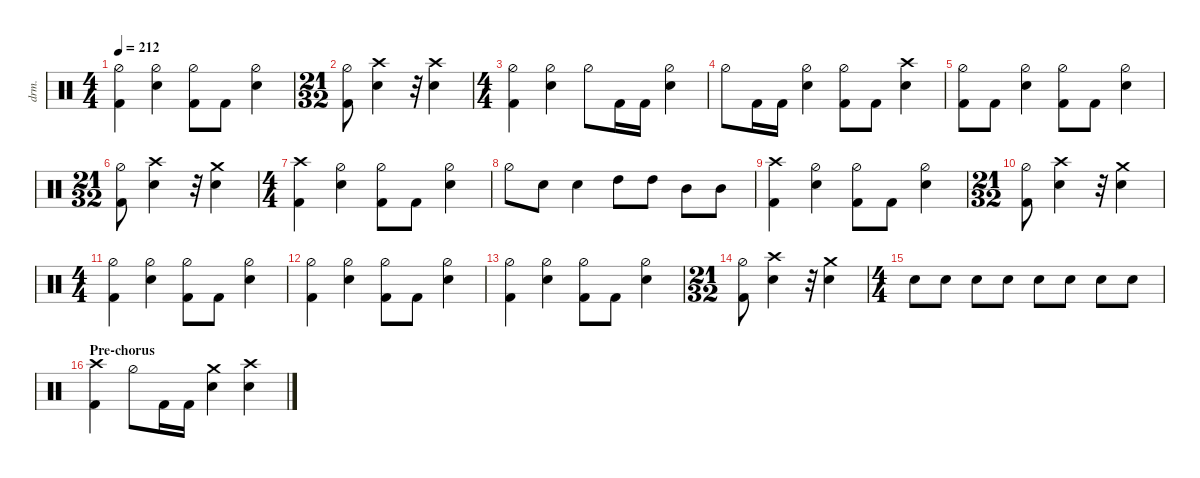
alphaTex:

\defaultSystemsLayout 4
\hideDynamics
\bracketExtendMode nobrackets
\track ("Drums" "drm.") {defaultSystemsLayout 4 multiBarRest instrument percussion}
\staff
\articulation defaults
\ts (4 4)
\tempo 212
\clef neutral
\ks c
("Kick (hit) 2" "Hi-Hat (half)").4{dy f} ("Hi-Hat (half)" "Snare (hit) 2").4 ("Hi-Hat (half)" "Kick (hit) 2").8 "Kick (hit) 2".8 ("Hi-Hat (half)" "Snare (hit) 2").4 |
\ts (21 32)
\beaming (8 3 2)
("Kick (hit) 2" "Hi-Hat (half)").8 ("Snare (hit) 2" "Crash high (hit)").4 r.32 ("Snare (hit) 2" "Crash high (hit)").4 |
\ts (4 4)
\beaming (8 2 2 2 2)
("Kick (hit) 2" "Hi-Hat (half)").4 ("Hi-Hat (half)" "Snare (hit) 2").4 "Hi-Hat (half)".8 "Kick (hit) 2".16 "Kick (hit) 2".16 ("Hi-Hat (half)" "Snare (hit) 2").4 |
"Hi-Hat (half)".8 "Kick (hit) 2".16 "Kick (hit) 2".16 ("Hi-Hat (half)" "Snare (hit) 2").4 ("Hi-Hat (half)" "Kick (hit) 2").8 "Kick (hit) 2".8 ("Snare (hit) 2" "Crash high (hit)").4 |
("Hi-Hat (half)" "Kick (hit) 2").8 "Kick (hit) 2".8 ("Hi-Hat (half)" "Snare (hit) 2").4 ("Hi-Hat (half)" "Kick (hit) 2").8 "Kick (hit) 2".8 ("Hi-Hat (half)" "Snare (hit) 2").4 |
\ts (21 32)
\beaming (8 3 2)
("Kick (hit) 2" "Hi-Hat (half)").8 ("Snare (hit) 2" "Crash high (hit)").4 r.32 ("Snare (hit) 2" "Crash medium (hit)").4 |
\ts (4 4)
\beaming (8 2 2 2 2)
("Crash high (hit)" "Kick (hit) 2").4 ("Hi-Hat (half)" "Snare (hit) 2").4 ("Hi-Hat (half)" "Kick (hit) 2").8 "Kick (hit) 2".8 ("Hi-Hat (half)" "Snare (hit) 2").4 |
"Hi-Hat (half)".8 "Snare (hit) 2".8 "Snare (hit) 2".4 "High Tom (hit)".8{dy ff} "High Tom (hit)".8 "Mid Tom (hit)".8 "Mid Tom (hit)".8 |
("Crash high (hit)" "Kick (hit) 2").4{dy f} ("Hi-Hat (half)" "Snare (hit) 2").4 ("Hi-Hat (half)" "Kick (hit) 2").8 "Kick (hit) 2".8 ("Hi-Hat (half)" "Snare (hit) 2").4 |
\ts (21 32)
\beaming (8 3 2)
("Kick (hit) 2" "Hi-Hat (half)").8 ("Snare (hit) 2" "Crash high (hit)").4 r.32 ("Snare (hit) 2" "Crash medium (hit)").4 |
\ts (4 4)
\beaming (8 2 2 2 2)
("Kick (hit) 2" "Hi-Hat (half)").4 ("Hi-Hat (half)" "Snare (hit) 2").4 ("Hi-Hat (half)" "Kick (hit) 2").8 "Kick (hit) 2".8 ("Hi-Hat (half)" "Snare (hit) 2").4 |
("Kick (hit) 2" "Hi-Hat (half)").4 ("Hi-Hat (half)" "Snare (hit) 2").4 ("Hi-Hat (half)" "Kick (hit) 2").8 "Kick (hit) 2".8 ("Hi-Hat (half)" "Snare (hit) 2").4 |
("Kick (hit) 2" "Hi-Hat (half)").4 ("Hi-Hat (half)" "Snare (hit) 2").4 ("Hi-Hat (half)" "Kick (hit) 2").8 "Kick (hit) 2".8 ("Hi-Hat (half)" "Snare (hit) 2").4 |
\ts (21 32)
\beaming (8 3 2)
("Kick (hit) 2" "Hi-Hat (half)").8 ("Snare (hit) 2" "Crash high (hit)").4 r.32 ("Snare (hit) 2" "Crash medium (hit)").4 |
\ts (4 4)
\beaming (8 2 2 2 2)
"Snare (hit) 2".8 "Snare (hit) 2".8 "Snare (hit) 2".8 "Snare (hit) 2".8 "Snare (hit) 2".8 "Snare (hit) 2".8 "Snare (hit) 2".8 "Snare (hit) 2".8 |
\section ("" "Pre-chorus")
("Crash high (hit)" "Kick (hit) 2").4 "Hi-Hat (half)".8 "Kick (hit) 2".16 "Kick (hit) 2".16 ("Snare (hit) 2" "Crash medium (hit)").4 ("Snare (hit) 2" "Crash high (hit)").4
